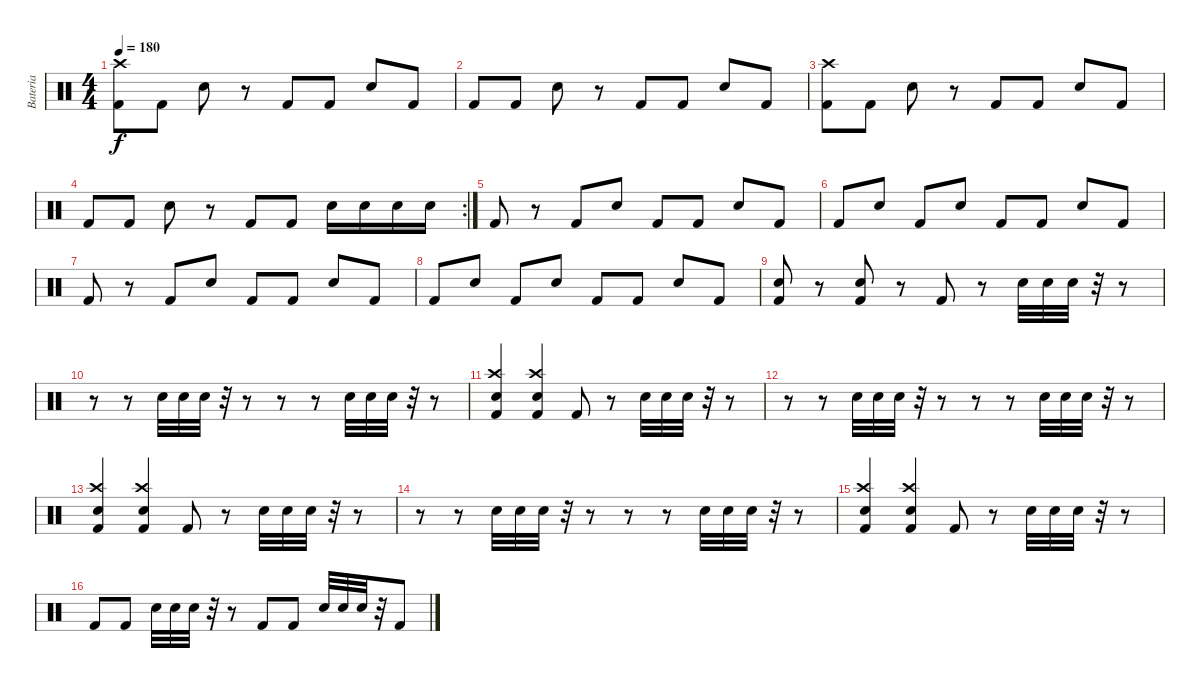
\track ("Bateria" "Bateria") {instrument percussion}
\staff {score}
\articulation defaults
\ts (4 4)
\tempo 180
\clef neutral
\ks c
("Kick (hit) 2" "Crash high (hit)").8{dy f} "Kick (hit) 2".8 "Electric Snare (hit)".8 r.8 "Kick (hit) 2".8 "Kick (hit) 2".8 "Electric Snare (hit)".8 "Kick (hit) 2".8 |
"Kick (hit) 2".8 "Kick (hit) 2".8 "Electric Snare (hit)".8 r.8 "Kick (hit) 2".8 "Kick (hit) 2".8 "Electric Snare (hit)".8 "Kick (hit) 2".8 |
("Kick (hit) 2" "Crash high (hit)").8 "Kick (hit) 2".8 "Electric Snare (hit)".8 r.8 "Kick (hit) 2".8 "Kick (hit) 2".8 "Electric Snare (hit)".8 "Kick (hit) 2".8 |
\rc 2 "Kick (hit) 2".8 "Kick (hit) 2".8 "Electric Snare (hit)".8
r.8 "Kick (hit) 2".8 "Kick (hit) 2".8 "Electric Snare (hit)".16 "Electric Snare (hit)".16 "Electric Snare (hit)".16 "Electric Snare (hit)".16 |
"Kick (hit) 2".8 r.8 "Kick (hit) 2".8 "Electric Snare (hit)".8 "Kick (hit) 2".8 "Kick (hit) 2".8 "Electric Snare (hit)".8 "Kick (hit) 2".8 |
"Kick (hit) 2".8 "Electric Snare (hit)".8 "Kick (hit) 2".8 "Electric Snare (hit)".8 "Kick (hit) 2".8 "Kick (hit) 2".8 "Electric Snare (hit)".8 "Kick (hit) 2".8 |
"Kick (hit) 2".8 r.8 "Kick (hit) 2".8 "Electric Snare (hit)".8 "Kick (hit) 2".8 "Kick (hit) 2".8 "Electric Snare (hit)".8 "Kick (hit) 2".8 |
"Kick (hit) 2".8 "Electric Snare (hit)".8 "Kick (hit) 2".8 "Electric Snare (hit)".8 "Kick (hit) 2".8 "Kick (hit) 2".8 "Electric Snare (hit)".8 "Kick (hit) 2".8 |
("Kick (hit) 2" "Electric Snare (hit)").8 r.8 ("Kick (hit) 2" "Electric Snare (hit)").8 r.8 "Kick (hit) 2".8 r.8 "Electric Snare (hit)".32 "Electric Snare (hit)".32 "Electric Snare (hit)".32 r.32 r.8 |
r.8 r.8 "Electric Snare (hit)".32 "Electric Snare (hit)".32 "Electric Snare (hit)".32 r.32 r.8 r.8 r.8 "Electric Snare (hit)".32 "Electric Snare (hit)".32 "Electric Snare (hit)".32 r.32 r.8 |
("Kick (hit) 2" "Electric Snare (hit)" "Crash high (hit)").4 ("Kick (hit) 2" "Electric Snare (hit)" "Crash high (hit)").4 "Kick (hit) 2".8 r.8 "Electric Snare (hit)".32 "Electric Snare (hit)".32 "Electric Snare (hit)".32 r.32 r.8 |
r.8 r.8 "Electric Snare (hit)".32 "Electric Snare (hit)".32 "Electric Snare (hit)".32 r.32 r.8 r.8 r.8 "Electric Snare (hit)".32 "Electric Snare (hit)".32 "Electric Snare (hit)".32 r.32 r.8 |
("Kick (hit) 2" "Electric Snare (hit)" "Crash high (hit)").4 ("Kick (hit) 2" "Electric Snare (hit)" "Crash high (hit)").4 "Kick (hit) 2".8 r.8 "Electric Snare (hit)".32 "Electric Snare (hit)".32 "Electric Snare (hit)".32 r.32 r.8 |
r.8 r.8 "Electric Snare (hit)".32 "Electric Snare (hit)".32 "Electric Snare (hit)".32 r.32 r.8 r.8 r.8 "Electric Snare (hit)".32 "Electric Snare (hit)".32 "Electric Snare (hit)".32 r.32 r.8 |
("Kick (hit) 2" "Electric Snare (hit)" "Crash high (hit)").4 ("Kick (hit) 2" "Electric Snare (hit)" "Crash high (hit)").4 "Kick (hit) 2".8 r.8 "Electric Snare (hit)".32 "Electric Snare (hit)".32 "Electric Snare (hit)".32 r.32 r.8 |
"Kick (hit) 2".8 "Kick (hit) 2".8 "Electric Snare (hit)".32 "Electric Snare (hit)".32 "Electric Snare (hit)".32 r.32 r.8 "Kick (hit) 2".8 "Kick (hit) 2".8 "Electric Snare (hit)".32 "Electric Snare (hit)".32 "Electric Snare (hit)".32 r.32 "Kick (hit) 2".8
